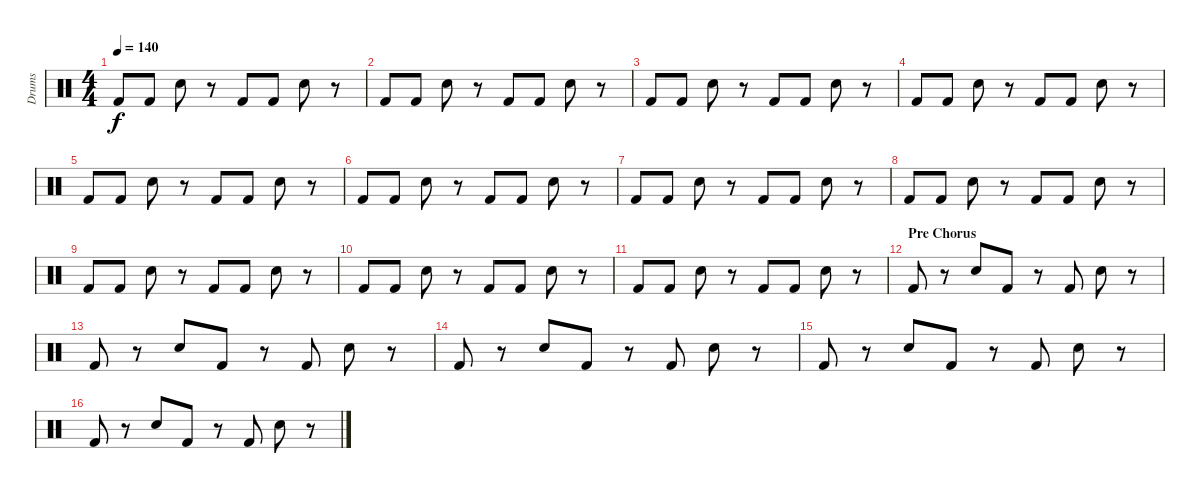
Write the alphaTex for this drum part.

\track ("Drums" "Drums") {instrument percussion}
\staff {score}
\articulation defaults
\ts (4 4)
\tempo 140
\clef neutral
\ks c "Kick (hit) 2".8{dy f} "Kick (hit) 2".8 "Snare (hit) 2".8
r.8 "Kick (hit) 2".8 "Kick (hit) 2".8 "Snare (hit) 2".8 r.8 |
"Kick (hit) 2".8 "Kick (hit) 2".8 "Snare (hit) 2".8 r.8 "Kick (hit) 2".8 "Kick (hit) 2".8 "Snare (hit) 2".8 r.8 |
"Kick (hit) 2".8 "Kick (hit) 2".8 "Snare (hit) 2".8 r.8 "Kick (hit) 2".8 "Kick (hit) 2".8 "Snare (hit) 2".8 r.8 |
"Kick (hit) 2".8 "Kick (hit) 2".8 "Snare (hit) 2".8 r.8 "Kick (hit) 2".8 "Kick (hit) 2".8 "Snare (hit) 2".8 r.8 |
"Kick (hit) 2".8 "Kick (hit) 2".8 "Snare (hit) 2".8 r.8 "Kick (hit) 2".8 "Kick (hit) 2".8 "Snare (hit) 2".8 r.8 |
"Kick (hit) 2".8 "Kick (hit) 2".8 "Snare (hit) 2".8 r.8 "Kick (hit) 2".8 "Kick (hit) 2".8 "Snare (hit) 2".8 r.8 |
"Kick (hit) 2".8 "Kick (hit) 2".8 "Snare (hit) 2".8 r.8 "Kick (hit) 2".8 "Kick (hit) 2".8 "Snare (hit) 2".8 r.8 |
"Kick (hit) 2".8 "Kick (hit) 2".8 "Snare (hit) 2".8 r.8 "Kick (hit) 2".8 "Kick (hit) 2".8 "Snare (hit) 2".8 r.8 |
"Kick (hit) 2".8 "Kick (hit) 2".8 "Snare (hit) 2".8 r.8 "Kick (hit) 2".8 "Kick (hit) 2".8 "Snare (hit) 2".8 r.8 |
"Kick (hit) 2".8 "Kick (hit) 2".8 "Snare (hit) 2".8 r.8 "Kick (hit) 2".8 "Kick (hit) 2".8 "Snare (hit) 2".8 r.8 |
"Kick (hit) 2".8 "Kick (hit) 2".8 "Snare (hit) 2".8 r.8 "Kick (hit) 2".8 "Kick (hit) 2".8 "Snare (hit) 2".8 r.8 |
\section ("" "Pre Chorus")
"Kick (hit) 2".8 r.8 "Snare (hit) 2".8 "Kick (hit) 2".8 r.8 "Kick (hit) 2".8 "Snare (hit) 2".8 r.8 |
"Kick (hit) 2".8 r.8 "Snare (hit) 2".8 "Kick (hit) 2".8 r.8 "Kick (hit) 2".8 "Snare (hit) 2".8 r.8 |
"Kick (hit) 2".8 r.8 "Snare (hit) 2".8 "Kick (hit) 2".8 r.8 "Kick (hit) 2".8 "Snare (hit) 2".8 r.8 |
"Kick (hit) 2".8 r.8 "Snare (hit) 2".8 "Kick (hit) 2".8 r.8 "Kick (hit) 2".8 "Snare (hit) 2".8 r.8 |
"Kick (hit) 2".8 r.8 "Snare (hit) 2".8 "Kick (hit) 2".8 r.8 "Kick (hit) 2".8 "Snare (hit) 2".8 r.8
